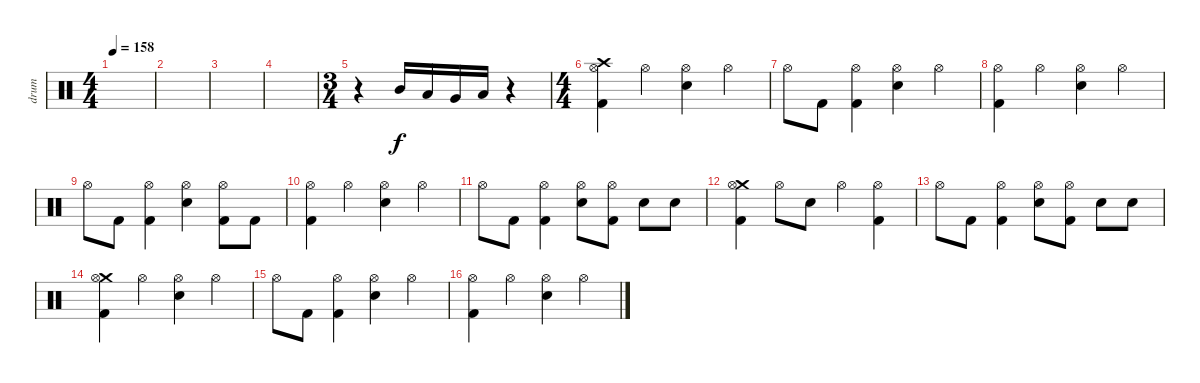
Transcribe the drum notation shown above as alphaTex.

\track ("drum" "drum") {instrument percussion}
\staff {score}
\articulation defaults
\ts (4 4)
\tempo 158
\clef neutral
\ks c
|
|
|
|
\ts (3 4)
r.4 "Mid Tom (hit)".16 "Low Tom (hit)".16 "Very Low Tom (hit)".16 "Low Floor Tom (hit)".16 r.4 |
\ts (4 4)
("Crash high (hit)" "Hi-Hat (open)" "Kick (hit) 2").4 "Hi-Hat (open)".4 ("Hi-Hat (open)" "Electric Snare (hit)").4 "Hi-Hat (open)".4 |
"Hi-Hat (open)".8 "Kick (hit) 2".8 ("Hi-Hat (open)" "Kick (hit) 2").4 ("Hi-Hat (open)" "Electric Snare (hit)").4 "Hi-Hat (open)".4 |
("Hi-Hat (open)" "Kick (hit) 2").4 "Hi-Hat (open)".4 ("Hi-Hat (open)" "Electric Snare (hit)").4 "Hi-Hat (open)".4 |
"Hi-Hat (open)".8 "Kick (hit) 2".8 ("Hi-Hat (open)" "Kick (hit) 2").4 ("Hi-Hat (open)" "Electric Snare (hit)").4 ("Hi-Hat (open)" "Kick (hit) 2").8 "Kick (hit) 2".8 |
("Hi-Hat (open)" "Kick (hit) 2").4 "Hi-Hat (open)".4 ("Hi-Hat (open)" "Electric Snare (hit)").4 "Hi-Hat (open)".4 |
"Hi-Hat (open)".8 "Kick (hit) 2".8 ("Hi-Hat (open)" "Kick (hit) 2").4 ("Hi-Hat (open)" "Electric Snare (hit)").8 ("Hi-Hat (open)" "Kick (hit) 2").8 "Electric Snare (hit)".8 "Electric Snare (hit)".8 |
("Crash medium (hit)" "Hi-Hat (open)" "Kick (hit) 2").4 "Hi-Hat (open)".8 "Electric Snare (hit)".8 "Hi-Hat (open)".4 ("Hi-Hat (open)" "Kick (hit) 2").4 |
"Hi-Hat (open)".8 "Kick (hit) 2".8 ("Hi-Hat (open)" "Kick (hit) 2").4 ("Hi-Hat (open)" "Electric Snare (hit)").8 ("Hi-Hat (open)" "Kick (hit) 2").8 "Electric Snare (hit)".8 "Electric Snare (hit)".8 |
("Crash medium (hit)" "Hi-Hat (open)" "Kick (hit) 2").4 "Hi-Hat (open)".4 ("Hi-Hat (open)" "Electric Snare (hit)").4 "Hi-Hat (open)".4 |
"Hi-Hat (open)".8 "Kick (hit) 2".8 ("Hi-Hat (open)" "Kick (hit) 2").4 ("Hi-Hat (open)" "Electric Snare (hit)").4 "Hi-Hat (open)".4 |
("Hi-Hat (open)" "Kick (hit) 2").4 "Hi-Hat (open)".4 ("Hi-Hat (open)" "Electric Snare (hit)").4 "Hi-Hat (open)".4
